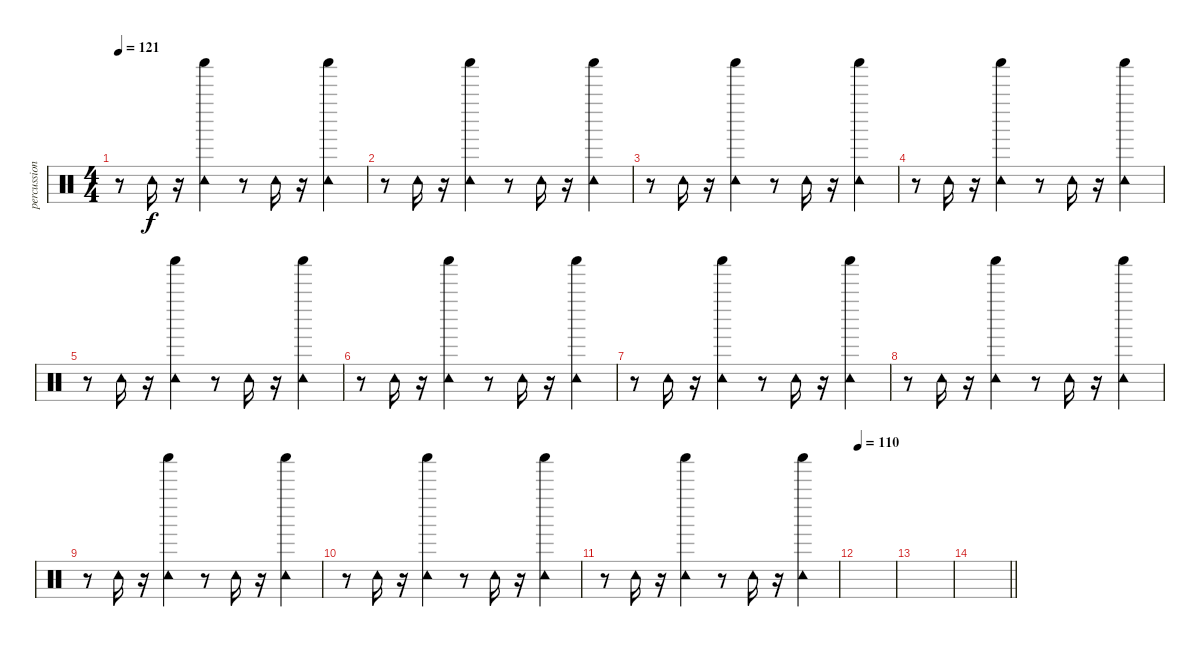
\track ("percussion" "percussion") {instrument percussion}
\staff {score}
\articulation defaults
\ts (4 4)
\tempo 121
\clef neutral
\ks c
r.8{dy f} "Tambourine (hit)".16 r.16 ("Tambourine (hit)" "Shaker (hit)").4 r.8 "Tambourine (hit)".16 r.16 ("Tambourine (hit)" "Shaker (hit)").4 |
r.8 "Tambourine (hit)".16 r.16 ("Tambourine (hit)" "Shaker (hit)").4 r.8 "Tambourine (hit)".16 r.16 ("Tambourine (hit)" "Shaker (hit)").4 |
r.8 "Tambourine (hit)".16 r.16 ("Tambourine (hit)" "Shaker (hit)").4 r.8 "Tambourine (hit)".16 r.16 ("Tambourine (hit)" "Shaker (hit)").4 |
r.8 "Tambourine (hit)".16 r.16 ("Tambourine (hit)" "Shaker (hit)").4 r.8 "Tambourine (hit)".16 r.16 ("Tambourine (hit)" "Shaker (hit)").4 |
r.8 "Tambourine (hit)".16 r.16 ("Tambourine (hit)" "Shaker (hit)").4 r.8 "Tambourine (hit)".16 r.16 ("Tambourine (hit)" "Shaker (hit)").4 |
r.8 "Tambourine (hit)".16 r.16 ("Tambourine (hit)" "Shaker (hit)").4 r.8 "Tambourine (hit)".16 r.16 ("Tambourine (hit)" "Shaker (hit)").4 |
r.8 "Tambourine (hit)".16 r.16 ("Tambourine (hit)" "Shaker (hit)").4 r.8 "Tambourine (hit)".16 r.16 ("Tambourine (hit)" "Shaker (hit)").4 |
r.8 "Tambourine (hit)".16 r.16 ("Tambourine (hit)" "Shaker (hit)").4 r.8 "Tambourine (hit)".16 r.16 ("Tambourine (hit)" "Shaker (hit)").4 |
r.8 "Tambourine (hit)".16 r.16 ("Tambourine (hit)" "Shaker (hit)").4 r.8 "Tambourine (hit)".16 r.16 ("Tambourine (hit)" "Shaker (hit)").4 |
r.8 "Tambourine (hit)".16 r.16 ("Tambourine (hit)" "Shaker (hit)").4 r.8 "Tambourine (hit)".16 r.16 ("Tambourine (hit)" "Shaker (hit)").4 |
r.8 "Tambourine (hit)".16 r.16 ("Tambourine (hit)" "Shaker (hit)").4 r.8 "Tambourine (hit)".16 r.16 ("Tambourine (hit)" "Shaker (hit)").4 |
\tempo 110
|
|
\barLineRight lightlight
